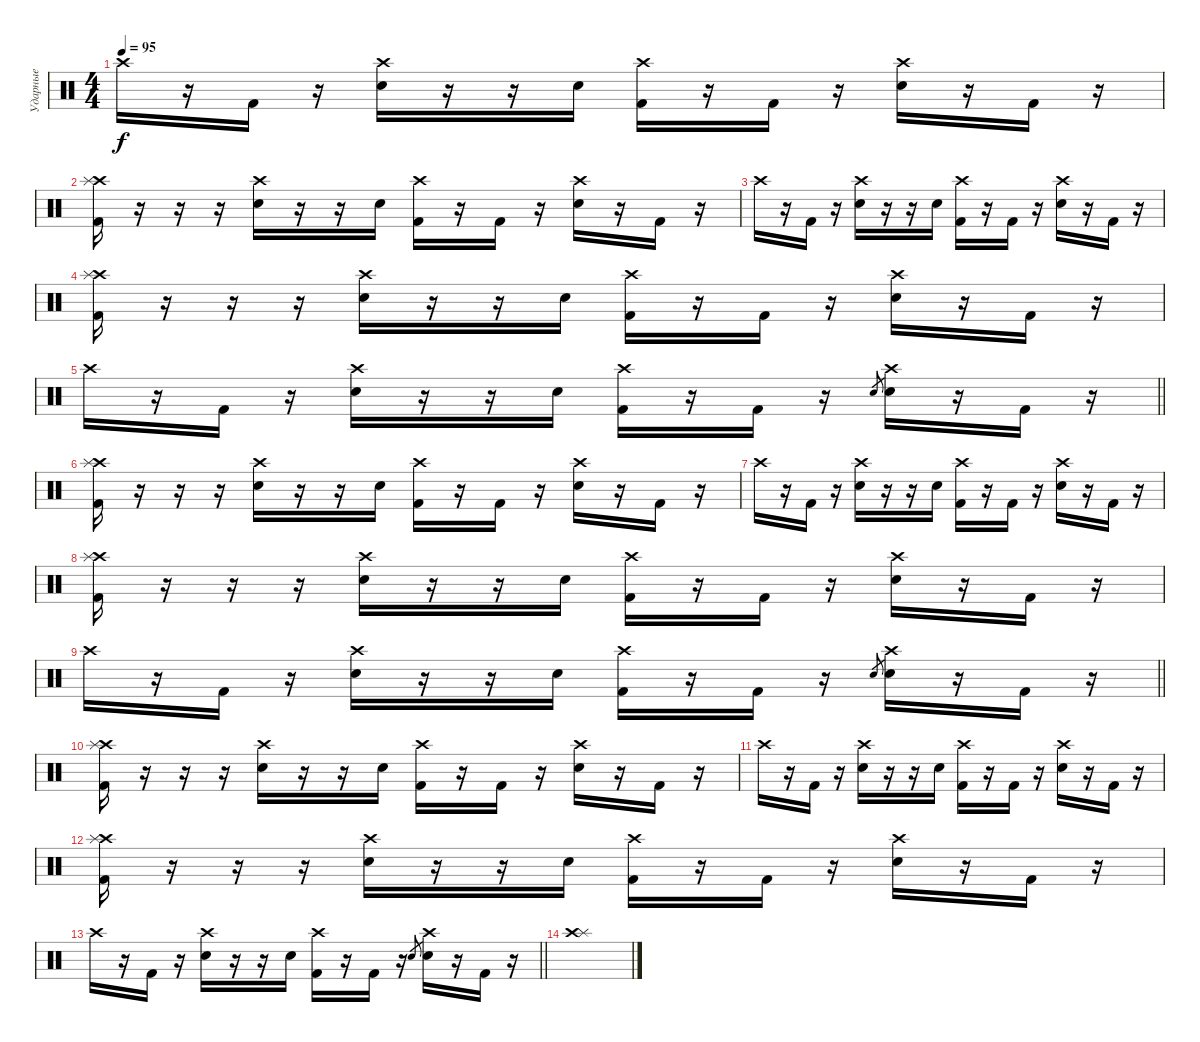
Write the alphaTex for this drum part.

\track ("Ударные" "Ударные") {instrument percussion}
\staff {score}
\articulation defaults
\ts (4 4)
\tempo 95
\clef neutral
\ks c "Crash high (hit)".16{dy f}
r.16 "Kick (hit) 2".16 r.16 ("Crash high (hit)" "Snare (hit) 2").16 r.16 r.16 "Snare (hit) 2".16 ("Crash high (hit)" "Kick (hit) 2").16 r.16 "Kick (hit) 2".16 r.16 ("Crash high (hit)" "Snare (hit) 2").16 r.16 "Kick (hit) 2".16 r.16 |
("Crash high (hit)" "Splash (hit)" "Kick (hit) 2").16 r.16 r.16 r.16 ("Crash high (hit)" "Snare (hit) 2").16 r.16 r.16 "Snare (hit) 2".16 ("Crash high (hit)" "Kick (hit) 2").16 r.16 "Kick (hit) 2".16 r.16 ("Crash high (hit)" "Snare (hit) 2").16 r.16 "Kick (hit) 2".16 r.16 |
"Crash high (hit)".16 r.16 "Kick (hit) 2".16 r.16 ("Crash high (hit)" "Snare (hit) 2").16 r.16 r.16 "Snare (hit) 2".16 ("Crash high (hit)" "Kick (hit) 2").16 r.16 "Kick (hit) 2".16 r.16 ("Crash high (hit)" "Snare (hit) 2").16 r.16 "Kick (hit) 2".16 r.16 |
("Crash high (hit)" "Splash (hit)" "Kick (hit) 2").16 r.16 r.16 r.16 ("Crash high (hit)" "Snare (hit) 2").16 r.16 r.16 "Snare (hit) 2".16 ("Crash high (hit)" "Kick (hit) 2").16 r.16 "Kick (hit) 2".16 r.16 ("Crash high (hit)" "Snare (hit) 2").16 r.16 "Kick (hit) 2".16 r.16 |
\barLineRight lightlight "Crash high (hit)".16
r.16 "Kick (hit) 2".16 r.16 ("Crash high (hit)" "Snare (hit) 2").16 r.16 r.16 "Snare (hit) 2".16 ("Crash high (hit)" "Kick (hit) 2").16 r.16 "Kick (hit) 2".16 r.16 "Snare (hit) 2".8{gr} ("Crash high (hit)" "Snare (hit) 2").16 r.16 "Kick (hit) 2".16 r.16 |
("Crash high (hit)" "Splash (hit)" "Kick (hit) 2").16 r.16 r.16 r.16 ("Crash high (hit)" "Snare (hit) 2").16 r.16 r.16 "Snare (hit) 2".16 ("Crash high (hit)" "Kick (hit) 2").16 r.16 "Kick (hit) 2".16 r.16 ("Crash high (hit)" "Snare (hit) 2").16 r.16 "Kick (hit) 2".16 r.16 |
"Crash high (hit)".16 r.16 "Kick (hit) 2".16 r.16 ("Crash high (hit)" "Snare (hit) 2").16 r.16 r.16 "Snare (hit) 2".16 ("Crash high (hit)" "Kick (hit) 2").16 r.16 "Kick (hit) 2".16 r.16 ("Crash high (hit)" "Snare (hit) 2").16 r.16 "Kick (hit) 2".16 r.16 |
("Crash high (hit)" "Splash (hit)" "Kick (hit) 2").16 r.16 r.16 r.16 ("Crash high (hit)" "Snare (hit) 2").16 r.16 r.16 "Snare (hit) 2".16 ("Crash high (hit)" "Kick (hit) 2").16 r.16 "Kick (hit) 2".16 r.16 ("Crash high (hit)" "Snare (hit) 2").16 r.16 "Kick (hit) 2".16 r.16 |
\barLineRight lightlight "Crash high (hit)".16
r.16 "Kick (hit) 2".16 r.16 ("Crash high (hit)" "Snare (hit) 2").16 r.16 r.16 "Snare (hit) 2".16 ("Crash high (hit)" "Kick (hit) 2").16 r.16 "Kick (hit) 2".16 r.16 "Snare (hit) 2".8{gr} ("Crash high (hit)" "Snare (hit) 2").16 r.16 "Kick (hit) 2".16 r.16 |
("Crash high (hit)" "Splash (hit)" "Kick (hit) 2").16 r.16 r.16 r.16 ("Crash high (hit)" "Snare (hit) 2").16 r.16 r.16 "Snare (hit) 2".16 ("Crash high (hit)" "Kick (hit) 2").16 r.16 "Kick (hit) 2".16 r.16 ("Crash high (hit)" "Snare (hit) 2").16 r.16 "Kick (hit) 2".16 r.16 |
"Crash high (hit)".16 r.16 "Kick (hit) 2".16 r.16 ("Crash high (hit)" "Snare (hit) 2").16 r.16 r.16 "Snare (hit) 2".16 ("Crash high (hit)" "Kick (hit) 2").16 r.16 "Kick (hit) 2".16 r.16 ("Crash high (hit)" "Snare (hit) 2").16 r.16 "Kick (hit) 2".16 r.16 |
("Crash high (hit)" "Splash (hit)" "Kick (hit) 2").16 r.16 r.16 r.16 ("Crash high (hit)" "Snare (hit) 2").16 r.16 r.16 "Snare (hit) 2".16 ("Crash high (hit)" "Kick (hit) 2").16 r.16 "Kick (hit) 2".16 r.16 ("Crash high (hit)" "Snare (hit) 2").16 r.16 "Kick (hit) 2".16 r.16 |
\barLineRight lightlight "Crash high (hit)".16
r.16 "Kick (hit) 2".16 r.16 ("Crash high (hit)" "Snare (hit) 2").16 r.16 r.16 "Snare (hit) 2".16 ("Crash high (hit)" "Kick (hit) 2").16 r.16 "Kick (hit) 2".16 r.16 "Snare (hit) 2".8{gr} ("Crash high (hit)" "Snare (hit) 2").16 r.16 "Kick (hit) 2".16 r.16 |
("Splash (hit)" "Crash high (hit)").1
